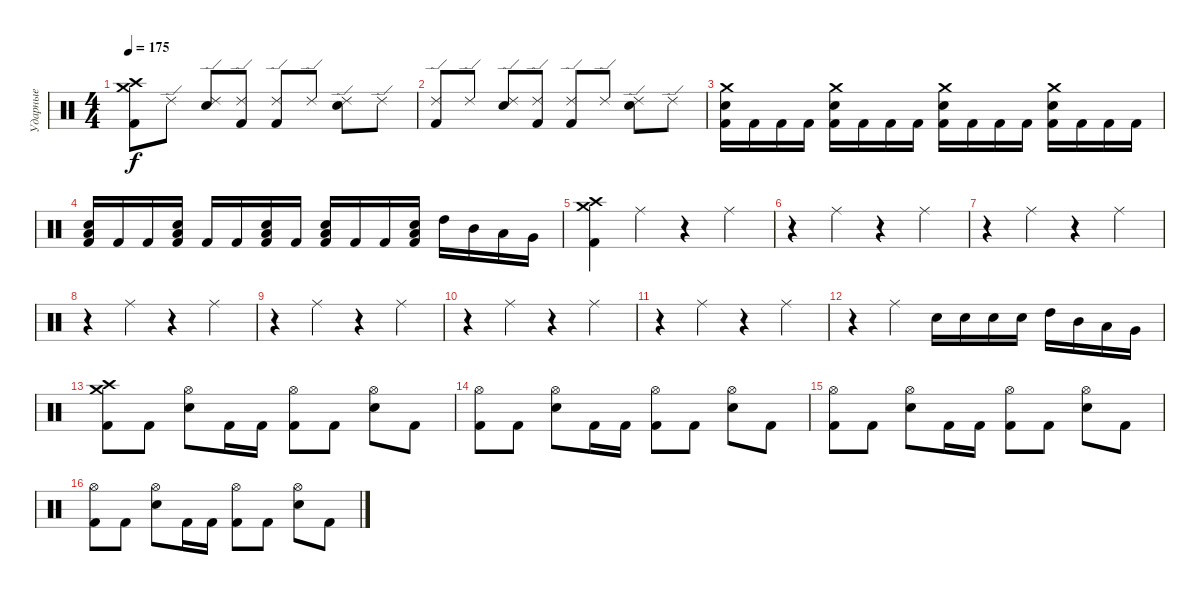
\track ("Ударные" "Ударные") {instrument percussion}
\staff {score}
\articulation defaults
\ts (4 4)
\tempo 175
\clef neutral
\ks c
("Crash medium (hit)" "Crash high (hit)" "Kick (hit) 2").8{dy f} "Ride (edge) 2".8 ("Ride (edge) 2" "Electric Snare (hit)").8 ("Ride (edge) 2" "Kick (hit) 2").8 ("Ride (edge) 2" "Kick (hit) 2").8 "Ride (edge) 2".8 ("Ride (edge) 2" "Electric Snare (hit)").8 "Ride (edge) 2".8 |
("Ride (edge) 2" "Kick (hit) 2").8 "Ride (edge) 2".8 ("Ride (edge) 2" "Electric Snare (hit)").8 ("Ride (edge) 2" "Kick (hit) 2").8 ("Ride (edge) 2" "Kick (hit) 2").8 "Ride (edge) 2".8 ("Ride (edge) 2" "Electric Snare (hit)").8 "Ride (edge) 2".8 |
("Crash medium (hit)" "Electric Snare (hit)" "Kick (hit) 2").16 "Kick (hit) 2".16 "Kick (hit) 2".16 "Kick (hit) 2".16 ("Crash medium (hit)" "Electric Snare (hit)" "Kick (hit) 2").16 "Kick (hit) 2".16 "Kick (hit) 2".16 "Kick (hit) 2".16 ("Crash medium (hit)" "Electric Snare (hit)" "Kick (hit) 2").16 "Kick (hit) 2".16 "Kick (hit) 2".16 "Kick (hit) 2".16 ("Crash medium (hit)" "Electric Snare (hit)" "Kick (hit) 2").16 "Kick (hit) 2".16 "Kick (hit) 2".16 "Kick (hit) 2".16 |
("Low Tom (hit)" "Electric Snare (hit)" "Kick (hit) 2").16 "Kick (hit) 2".16 "Kick (hit) 2".16 ("Low Tom (hit)" "Electric Snare (hit)" "Kick (hit) 2").16 "Kick (hit) 2".16 "Kick (hit) 2".16 ("Low Tom (hit)" "Electric Snare (hit)" "Kick (hit) 2").16 "Kick (hit) 2".16 ("Low Tom (hit)" "Electric Snare (hit)" "Kick (hit) 2").16 "Kick (hit) 2".16 "Kick (hit) 2".16 ("Low Tom (hit)" "Electric Snare (hit)" "Kick (hit) 2").16 "High Tom (hit)".16 "Mid Tom (hit)".16 "Low Tom (hit)".16 "Very Low Tom (hit)".16 |
("Crash medium (hit)" "Crash high (hit)" "Kick (hit) 2").4 "Ride (middle)".4 r.4 "Ride (middle)".4 |
r.4 "Ride (middle)".4 r.4 "Ride (middle)".4 |
r.4 "Ride (middle)".4 r.4 "Ride (middle)".4 |
r.4 "Ride (middle)".4 r.4 "Ride (middle)".4 |
r.4 "Ride (middle)".4 r.4 "Ride (middle)".4 |
r.4 "Ride (middle)".4 r.4 "Ride (middle)".4 |
r.4 "Ride (middle)".4 r.4 "Ride (middle)".4 |
r.4 "Ride (middle)".4 "Electric Snare (hit)".16 "Electric Snare (hit)".16 "Electric Snare (hit)".16 "Electric Snare (hit)".16 "High Tom (hit)".16 "Mid Tom (hit)".16 "Low Tom (hit)".16 "Very Low Tom (hit)".16 |
("Crash medium (hit)" "Crash high (hit)" "Kick (hit) 2").8 "Kick (hit) 2".8 ("Hi-Hat (open)" "Electric Snare (hit)").8 "Kick (hit) 2".16 "Kick (hit) 2".16 ("Hi-Hat (open)" "Kick (hit) 2").8 "Kick (hit) 2".8 ("Hi-Hat (open)" "Electric Snare (hit)").8 "Kick (hit) 2".8 |
("Hi-Hat (open)" "Kick (hit) 2").8 "Kick (hit) 2".8 ("Hi-Hat (open)" "Electric Snare (hit)").8 "Kick (hit) 2".16 "Kick (hit) 2".16 ("Hi-Hat (open)" "Kick (hit) 2").8 "Kick (hit) 2".8 ("Hi-Hat (open)" "Electric Snare (hit)").8 "Kick (hit) 2".8 |
("Hi-Hat (open)" "Kick (hit) 2").8 "Kick (hit) 2".8 ("Hi-Hat (open)" "Electric Snare (hit)").8 "Kick (hit) 2".16 "Kick (hit) 2".16 ("Hi-Hat (open)" "Kick (hit) 2").8 "Kick (hit) 2".8 ("Hi-Hat (open)" "Electric Snare (hit)").8 "Kick (hit) 2".8 |
("Hi-Hat (open)" "Kick (hit) 2").8 "Kick (hit) 2".8 ("Hi-Hat (open)" "Electric Snare (hit)").8 "Kick (hit) 2".16 "Kick (hit) 2".16 ("Hi-Hat (open)" "Kick (hit) 2").8 "Kick (hit) 2".8 ("Hi-Hat (open)" "Electric Snare (hit)").8 "Kick (hit) 2".8
